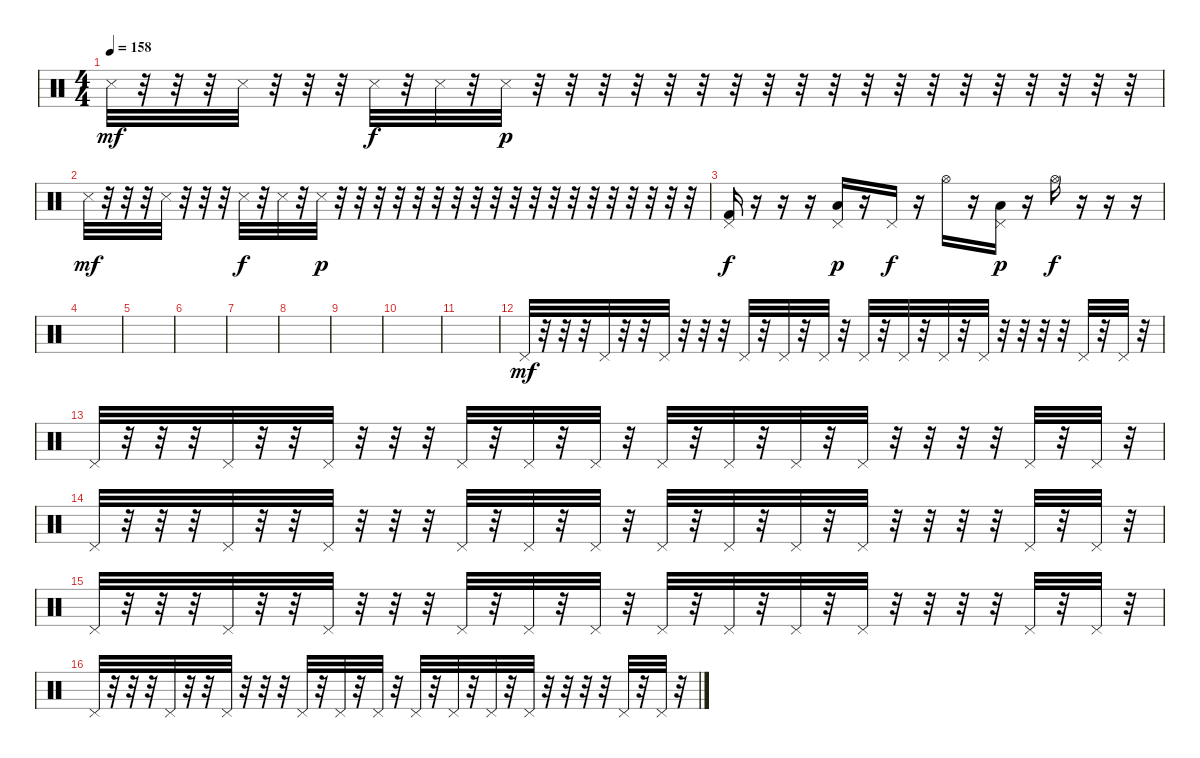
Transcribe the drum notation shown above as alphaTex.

\track ("   " "   ") {instrument percussion}
\staff
\articulation defaults
\ts (4 4)
\tempo 158
\clef neutral
\ks c "Snare (side stick) 3".32{dy mf}
r.32 r.32 r.32 "Snare (side stick) 3".32 r.32 r.32 r.32 "Snare (side stick) 3".32{dy f} r.32 "Snare (side stick) 3".32 r.32 "Snare (side stick) 3".32{dy p} r.32 r.32 r.32 r.32 r.32 r.32 r.32 r.32 r.32 r.32 r.32 r.32 r.32 r.32 r.32 r.32 r.32 r.32 r.32 |
"Snare (side stick) 3".32{dy mf} r.32 r.32 r.32 "Snare (side stick) 3".32 r.32 r.32 r.32 "Snare (side stick) 3".32{dy f} r.32 "Snare (side stick) 3".32 r.32 "Snare (side stick) 3".32{dy p} r.32 r.32 r.32 r.32 r.32 r.32 r.32 r.32 r.32 r.32 r.32 r.32 r.32 r.32 r.32 r.32 r.32 r.32 r.32 |
("Pedal Hi-Hat (hit)" "Kick (hit) 2").16{dy f} r.16 r.16 r.16 ("Pedal Hi-Hat (hit)" "Low Tom (hit)").16{dy p} r.16 "Pedal Hi-Hat (hit)".16{dy f} r.16 "Hi-Hat (open)".16 r.16 ("Pedal Hi-Hat (hit)" "Low Tom (hit)").16{dy p} r.16 "Hi-Hat (open)".16{dy f} r.16 r.16 r.16 |
|
|
|
|
|
|
|
|
"Pedal Hi-Hat (hit)".32{dy mf} r.32 r.32 r.32 "Pedal Hi-Hat (hit)".32 r.32 r.32 "Pedal Hi-Hat (hit)".32 r.32 r.32 r.32 "Pedal Hi-Hat (hit)".32 r.32 "Pedal Hi-Hat (hit)".32 r.32 "Pedal Hi-Hat (hit)".32 r.32 "Pedal Hi-Hat (hit)".32 r.32 "Pedal Hi-Hat (hit)".32 r.32 "Pedal Hi-Hat (hit)".32 r.32 "Pedal Hi-Hat (hit)".32 r.32 r.32 r.32 r.32 "Pedal Hi-Hat (hit)".32 r.32 "Pedal Hi-Hat (hit)".32 r.32 |
"Pedal Hi-Hat (hit)".32 r.32 r.32 r.32 "Pedal Hi-Hat (hit)".32 r.32 r.32 "Pedal Hi-Hat (hit)".32 r.32 r.32 r.32 "Pedal Hi-Hat (hit)".32 r.32 "Pedal Hi-Hat (hit)".32 r.32 "Pedal Hi-Hat (hit)".32 r.32 "Pedal Hi-Hat (hit)".32 r.32 "Pedal Hi-Hat (hit)".32 r.32 "Pedal Hi-Hat (hit)".32 r.32 "Pedal Hi-Hat (hit)".32 r.32 r.32 r.32 r.32 "Pedal Hi-Hat (hit)".32 r.32 "Pedal Hi-Hat (hit)".32 r.32 |
"Pedal Hi-Hat (hit)".32 r.32 r.32 r.32 "Pedal Hi-Hat (hit)".32 r.32 r.32 "Pedal Hi-Hat (hit)".32 r.32 r.32 r.32 "Pedal Hi-Hat (hit)".32 r.32 "Pedal Hi-Hat (hit)".32 r.32 "Pedal Hi-Hat (hit)".32 r.32 "Pedal Hi-Hat (hit)".32 r.32 "Pedal Hi-Hat (hit)".32 r.32 "Pedal Hi-Hat (hit)".32 r.32 "Pedal Hi-Hat (hit)".32 r.32 r.32 r.32 r.32 "Pedal Hi-Hat (hit)".32 r.32 "Pedal Hi-Hat (hit)".32 r.32 |
"Pedal Hi-Hat (hit)".32 r.32 r.32 r.32 "Pedal Hi-Hat (hit)".32 r.32 r.32 "Pedal Hi-Hat (hit)".32 r.32 r.32 r.32 "Pedal Hi-Hat (hit)".32 r.32 "Pedal Hi-Hat (hit)".32 r.32 "Pedal Hi-Hat (hit)".32 r.32 "Pedal Hi-Hat (hit)".32 r.32 "Pedal Hi-Hat (hit)".32 r.32 "Pedal Hi-Hat (hit)".32 r.32 "Pedal Hi-Hat (hit)".32 r.32 r.32 r.32 r.32 "Pedal Hi-Hat (hit)".32 r.32 "Pedal Hi-Hat (hit)".32 r.32 |
"Pedal Hi-Hat (hit)".32 r.32 r.32 r.32 "Pedal Hi-Hat (hit)".32 r.32 r.32 "Pedal Hi-Hat (hit)".32 r.32 r.32 r.32 "Pedal Hi-Hat (hit)".32 r.32 "Pedal Hi-Hat (hit)".32 r.32 "Pedal Hi-Hat (hit)".32 r.32 "Pedal Hi-Hat (hit)".32 r.32 "Pedal Hi-Hat (hit)".32 r.32 "Pedal Hi-Hat (hit)".32 r.32 "Pedal Hi-Hat (hit)".32 r.32 r.32 r.32 r.32 "Pedal Hi-Hat (hit)".32 r.32 "Pedal Hi-Hat (hit)".32 r.32
